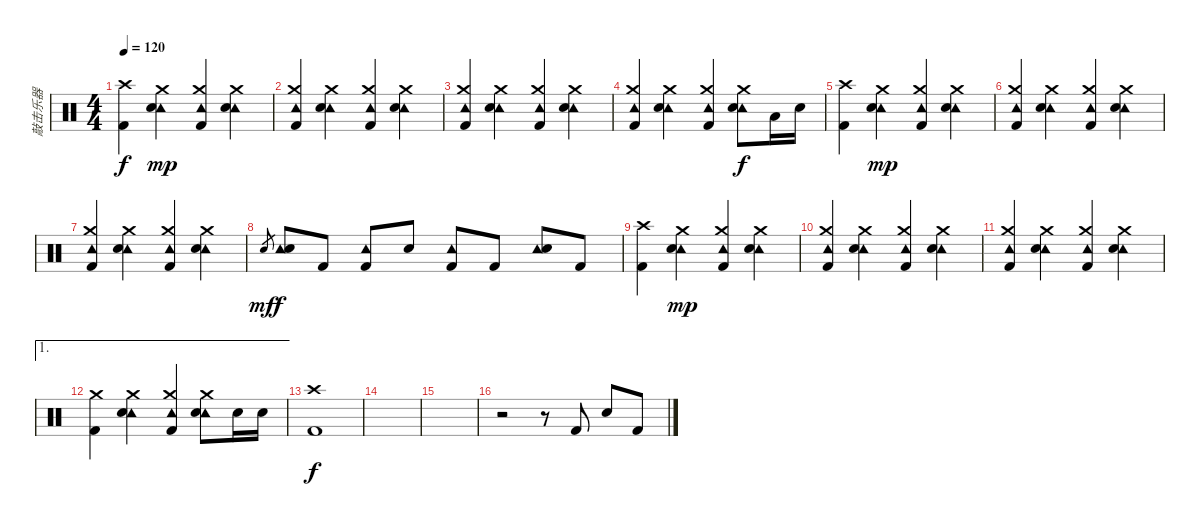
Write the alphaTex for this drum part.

\track ("敲击乐器" "敲击乐器") {instrument percussion}
\staff {score}
\articulation defaults
\ts (4 4)
\tempo 120
\clef neutral
\ks c
("Crash high (hit)" "Kick (hit) 2").4{dy f} ("Crash medium (hit)" "Tambourine (hit)" "Electric Snare (hit)").4{dy mp} ("Crash medium (hit)" "Tambourine (hit)" "Kick (hit) 2").4 ("Crash medium (hit)" "Tambourine (hit)" "Electric Snare (hit)").4 |
("Crash medium (hit)" "Tambourine (hit)" "Kick (hit) 2").4 ("Crash medium (hit)" "Tambourine (hit)" "Electric Snare (hit)").4 ("Crash medium (hit)" "Tambourine (hit)" "Kick (hit) 2").4 ("Crash medium (hit)" "Tambourine (hit)" "Electric Snare (hit)").4 |
("Crash medium (hit)" "Tambourine (hit)" "Kick (hit) 2").4 ("Crash medium (hit)" "Tambourine (hit)" "Electric Snare (hit)").4 ("Crash medium (hit)" "Tambourine (hit)" "Kick (hit) 2").4 ("Crash medium (hit)" "Tambourine (hit)" "Electric Snare (hit)").4 |
("Crash medium (hit)" "Tambourine (hit)" "Kick (hit) 2").4 ("Crash medium (hit)" "Tambourine (hit)" "Electric Snare (hit)").4 ("Crash medium (hit)" "Tambourine (hit)" "Kick (hit) 2").4 ("Crash medium (hit)" "Tambourine (hit)" "Electric Snare (hit)").8{dy f} "Low Tom (hit)".16 "Electric Snare (hit)".16 |
("Crash high (hit)" "Kick (hit) 2").4 ("Crash medium (hit)" "Tambourine (hit)" "Electric Snare (hit)").4{dy mp} ("Crash medium (hit)" "Tambourine (hit)" "Kick (hit) 2").4 ("Crash medium (hit)" "Tambourine (hit)" "Electric Snare (hit)").4 |
("Crash medium (hit)" "Tambourine (hit)" "Kick (hit) 2").4 ("Crash medium (hit)" "Tambourine (hit)" "Electric Snare (hit)").4 ("Crash medium (hit)" "Tambourine (hit)" "Kick (hit) 2").4 ("Crash medium (hit)" "Tambourine (hit)" "Electric Snare (hit)").4 |
("Crash medium (hit)" "Tambourine (hit)" "Kick (hit) 2").4 ("Crash medium (hit)" "Tambourine (hit)" "Electric Snare (hit)").4 ("Crash medium (hit)" "Tambourine (hit)" "Kick (hit) 2").4 ("Crash medium (hit)" "Tambourine (hit)" "Electric Snare (hit)").4 |
"Electric Snare (hit)".8{gr dy mf} ("Tambourine (hit)" "Electric Snare (hit)").8{dy f} "Kick (hit) 2".8 ("Tambourine (hit)" "Kick (hit) 2").8 "Electric Snare (hit)".8 ("Tambourine (hit)" "Kick (hit) 2").8 "Kick (hit) 2".8 ("Tambourine (hit)" "Electric Snare (hit)").8 "Kick (hit) 2".8 |
("Crash high (hit)" "Kick (hit) 2").4 ("Tambourine (hit)" "Crash medium (hit)" "Electric Snare (hit)").4{dy mp} ("Tambourine (hit)" "Crash medium (hit)" "Kick (hit) 2").4 ("Tambourine (hit)" "Crash medium (hit)" "Electric Snare (hit)").4 |
("Tambourine (hit)" "Crash medium (hit)" "Kick (hit) 2").4 ("Tambourine (hit)" "Crash medium (hit)" "Electric Snare (hit)").4 ("Tambourine (hit)" "Crash medium (hit)" "Kick (hit) 2").4 ("Tambourine (hit)" "Crash medium (hit)" "Electric Snare (hit)").4 |
("Tambourine (hit)" "Crash medium (hit)" "Kick (hit) 2").4 ("Tambourine (hit)" "Crash medium (hit)" "Electric Snare (hit)").4 ("Tambourine (hit)" "Crash medium (hit)" "Kick (hit) 2").4 ("Tambourine (hit)" "Crash medium (hit)" "Electric Snare (hit)").4 |
\ae 1
("Crash medium (hit)" "Kick (hit) 2").4 ("Tambourine (hit)" "Crash medium (hit)" "Electric Snare (hit)").4 ("Tambourine (hit)" "Crash medium (hit)" "Kick (hit) 2").4 ("Tambourine (hit)" "Crash medium (hit)" "Electric Snare (hit)").8 "Electric Snare (hit)".16 "Electric Snare (hit)".16 |
("Crash high (hit)" "Kick (hit) 2").1{dy f} |
|
|
r.2 r.8 "Kick (hit) 2".8 "Electric Snare (hit)".8 "Kick (hit) 2".8
